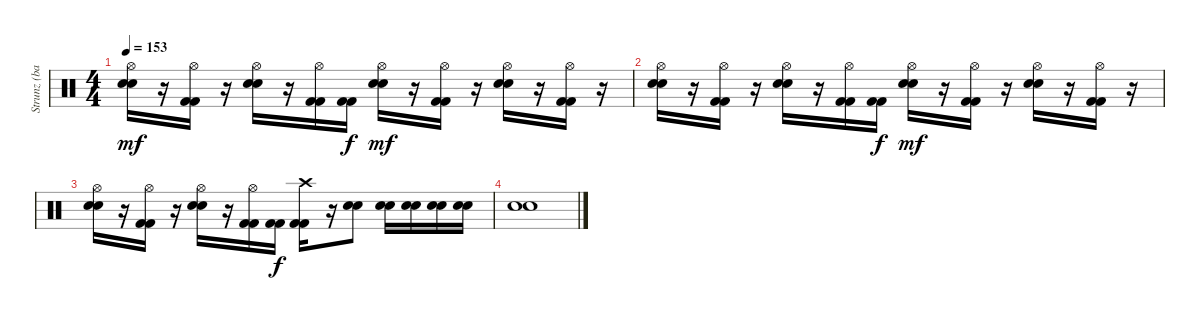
\track ("Strunz (bateria)" "Strunz (ba") {instrument percussion}
\staff {score}
\articulation defaults
\ts (4 4)
\tempo 153
\clef neutral
\ks c
("Hi-Hat (open)" "Snare (hit) 2" "Snare (hit) 2").16{dy mf} r.16 ("Hi-Hat (open)" "Kick (hit) 2" "Kick (hit) 2").16 r.16 ("Hi-Hat (open)" "Snare (hit) 2" "Snare (hit) 2").16 r.16 ("Hi-Hat (open)" "Kick (hit) 2" "Kick (hit) 2").16 ("Kick (hit) 2" "Kick (hit) 2").16{dy f} ("Hi-Hat (open)" "Snare (hit) 2" "Snare (hit) 2").16{dy mf} r.16 ("Hi-Hat (open)" "Kick (hit) 2" "Kick (hit) 2").16 r.16 ("Hi-Hat (open)" "Snare (hit) 2" "Snare (hit) 2").16 r.16 ("Hi-Hat (open)" "Kick (hit) 2" "Kick (hit) 2").16 r.16 |
("Hi-Hat (open)" "Snare (hit) 2" "Snare (hit) 2").16 r.16 ("Hi-Hat (open)" "Kick (hit) 2" "Kick (hit) 2").16 r.16 ("Hi-Hat (open)" "Snare (hit) 2" "Snare (hit) 2").16 r.16 ("Hi-Hat (open)" "Kick (hit) 2" "Kick (hit) 2").16 ("Kick (hit) 2" "Kick (hit) 2").16{dy f} ("Hi-Hat (open)" "Snare (hit) 2" "Snare (hit) 2").16{dy mf} r.16 ("Hi-Hat (open)" "Kick (hit) 2" "Kick (hit) 2").16 r.16 ("Hi-Hat (open)" "Snare (hit) 2" "Snare (hit) 2").16 r.16 ("Hi-Hat (open)" "Kick (hit) 2" "Kick (hit) 2").16 r.16 |
("Hi-Hat (open)" "Snare (hit) 2" "Snare (hit) 2").16 r.16 ("Hi-Hat (open)" "Kick (hit) 2" "Kick (hit) 2").16 r.16 ("Hi-Hat (open)" "Snare (hit) 2" "Snare (hit) 2").16 r.16 ("Hi-Hat (open)" "Kick (hit) 2" "Kick (hit) 2").16 ("Kick (hit) 2" "Kick (hit) 2").16{dy f} ("Crash high (hit)" "Kick (hit) 2" "Kick (hit) 2").16 r.16 ("Snare (hit) 2" "Snare (hit) 2").8 ("Snare (hit) 2" "Snare (hit) 2").16 ("Snare (hit) 2" "Snare (hit) 2").16 ("Snare (hit) 2" "Snare (hit) 2").16 ("Snare (hit) 2" "Snare (hit) 2").16 |
("Snare (hit) 2" "Snare (hit) 2").1
